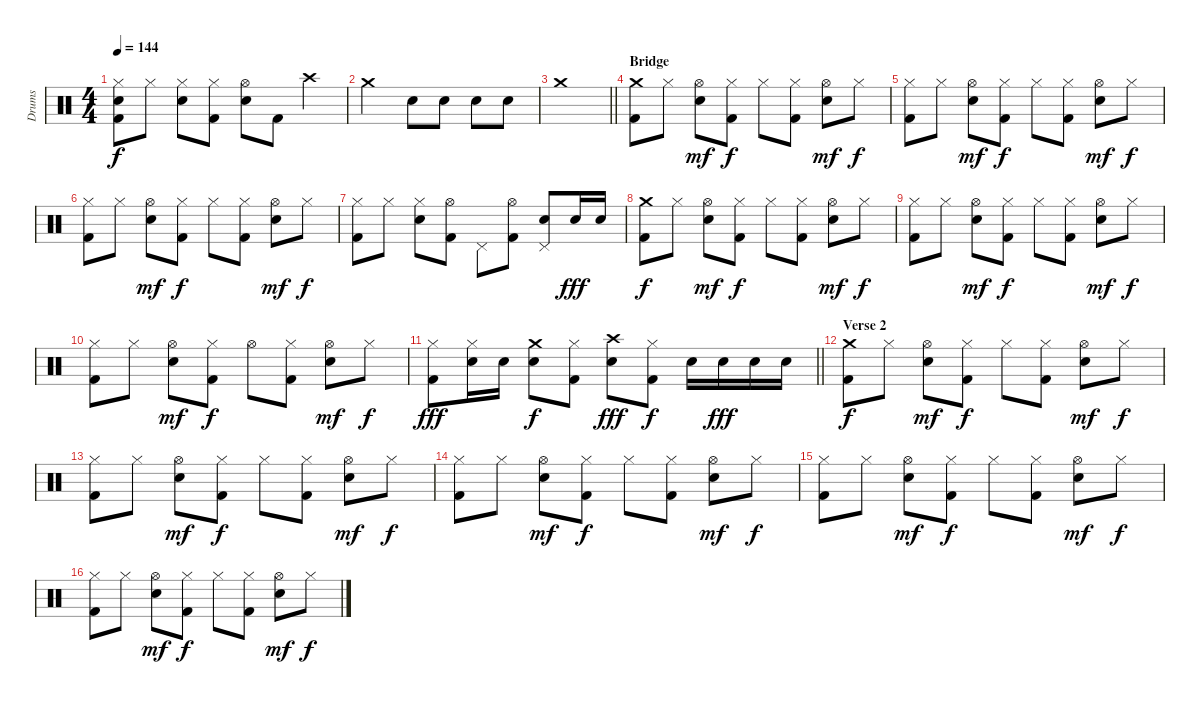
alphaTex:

\track ("Drums" "Drums") {instrument percussion}
\staff {score}
\articulation defaults
\ts (4 4)
\tempo 144
\clef neutral
\ks c
("Hi-Hat (closed)" "Electric Snare (hit)" "Kick (hit) 2").8{dy f} "Hi-Hat (closed)".8 ("Hi-Hat (closed)" "Electric Snare (hit)").8 ("Hi-Hat (closed)" "Kick (hit) 2").8 ("Hi-Hat (open)" "Electric Snare (hit)").8 "Kick (hit) 2".8 "Crash high (hit)".4 |
"Crash medium (hit)".2 "Electric Snare (hit)".8 "Electric Snare (hit)".8 "Electric Snare (hit)".8 "Electric Snare (hit)".8 |
\barLineRight lightlight "Crash medium (hit)".1
|
\section ("" "Bridge")
("Crash medium (hit)" "Kick (hit) 2").8 "Hi-Hat (closed)".8 ("Hi-Hat (open)" "Electric Snare (hit)").8{dy mf} ("Hi-Hat (closed)" "Kick (hit) 2").8{dy f} "Hi-Hat (closed)".8 ("Hi-Hat (closed)" "Kick (hit) 2").8 ("Hi-Hat (open)" "Electric Snare (hit)").8{dy mf} "Hi-Hat (closed)".8{dy f} |
("Hi-Hat (closed)" "Kick (hit) 2").8 "Hi-Hat (closed)".8 ("Hi-Hat (open)" "Electric Snare (hit)").8{dy mf} ("Hi-Hat (closed)" "Kick (hit) 2").8{dy f} "Hi-Hat (closed)".8 ("Hi-Hat (closed)" "Kick (hit) 2").8 ("Hi-Hat (open)" "Electric Snare (hit)").8{dy mf} "Hi-Hat (closed)".8{dy f} |
("Hi-Hat (closed)" "Kick (hit) 2").8 "Hi-Hat (closed)".8 ("Hi-Hat (open)" "Electric Snare (hit)").8{dy mf} ("Hi-Hat (closed)" "Kick (hit) 2").8{dy f} "Hi-Hat (closed)".8 ("Hi-Hat (closed)" "Kick (hit) 2").8 ("Hi-Hat (open)" "Electric Snare (hit)").8{dy mf} "Hi-Hat (closed)".8{dy f} |
("Hi-Hat (closed)" "Kick (hit) 2").8 "Hi-Hat (closed)".8 ("Hi-Hat (closed)" "Electric Snare (hit)").8 ("Hi-Hat (open)" "Kick (hit) 2").8 "Pedal Hi-Hat (hit)".8 ("Hi-Hat (open)" "Kick (hit) 2").8 ("Pedal Hi-Hat (hit)" "Electric Snare (hit)").8 "Electric Snare (hit)".16{dy fff} "Electric Snare (hit)".16 |
("Crash medium (hit)" "Kick (hit) 2").8{dy f} "Hi-Hat (closed)".8 ("Hi-Hat (open)" "Electric Snare (hit)").8{dy mf} ("Hi-Hat (closed)" "Kick (hit) 2").8{dy f} "Hi-Hat (closed)".8 ("Hi-Hat (closed)" "Kick (hit) 2").8 ("Hi-Hat (open)" "Electric Snare (hit)").8{dy mf} "Hi-Hat (closed)".8{dy f} |
("Hi-Hat (closed)" "Kick (hit) 2").8 "Hi-Hat (closed)".8 ("Hi-Hat (open)" "Electric Snare (hit)").8{dy mf} ("Hi-Hat (closed)" "Kick (hit) 2").8{dy f} "Hi-Hat (closed)".8 ("Hi-Hat (closed)" "Kick (hit) 2").8 ("Hi-Hat (open)" "Electric Snare (hit)").8{dy mf} "Hi-Hat (closed)".8{dy f} |
("Hi-Hat (closed)" "Kick (hit) 2").8 "Hi-Hat (closed)".8 ("Hi-Hat (open)" "Electric Snare (hit)").8{dy mf} ("Hi-Hat (closed)" "Kick (hit) 2").8{dy f} "Hi-Hat (open)".8 ("Hi-Hat (closed)" "Kick (hit) 2").8 ("Hi-Hat (open)" "Electric Snare (hit)").8{dy mf} "Hi-Hat (closed)".8{dy f} |
\barLineRight lightlight
("Hi-Hat (closed)" "Kick (hit) 2").8{dy fff} ("Hi-Hat (closed)" "Electric Snare (hit)").16 "Electric Snare (hit)".16 ("Crash medium (hit)" "Electric Snare (hit)").8{dy f} ("Hi-Hat (closed)" "Kick (hit) 2").8 ("Crash high (hit)" "Electric Snare (hit)").8{dy fff} ("Hi-Hat (closed)" "Kick (hit) 2").8{dy f} "Electric Snare (hit)".16 "Electric Snare (hit)".16{dy fff} "Electric Snare (hit)".16 "Electric Snare (hit)".16 |
\section ("" "Verse 2")
("Crash medium (hit)" "Kick (hit) 2").8{dy f} "Hi-Hat (closed)".8 ("Hi-Hat (open)" "Electric Snare (hit)").8{dy mf} ("Hi-Hat (closed)" "Kick (hit) 2").8{dy f} "Hi-Hat (closed)".8 ("Hi-Hat (closed)" "Kick (hit) 2").8 ("Hi-Hat (open)" "Electric Snare (hit)").8{dy mf} "Hi-Hat (closed)".8{dy f} |
("Hi-Hat (closed)" "Kick (hit) 2").8 "Hi-Hat (closed)".8 ("Hi-Hat (open)" "Electric Snare (hit)").8{dy mf} ("Hi-Hat (closed)" "Kick (hit) 2").8{dy f} "Hi-Hat (closed)".8 ("Hi-Hat (closed)" "Kick (hit) 2").8 ("Hi-Hat (open)" "Electric Snare (hit)").8{dy mf} "Hi-Hat (closed)".8{dy f} |
("Hi-Hat (closed)" "Kick (hit) 2").8 "Hi-Hat (closed)".8 ("Hi-Hat (open)" "Electric Snare (hit)").8{dy mf} ("Hi-Hat (closed)" "Kick (hit) 2").8{dy f} "Hi-Hat (closed)".8 ("Hi-Hat (closed)" "Kick (hit) 2").8 ("Hi-Hat (open)" "Electric Snare (hit)").8{dy mf} "Hi-Hat (closed)".8{dy f} |
("Hi-Hat (closed)" "Kick (hit) 2").8 "Hi-Hat (closed)".8 ("Hi-Hat (open)" "Electric Snare (hit)").8{dy mf} ("Hi-Hat (closed)" "Kick (hit) 2").8{dy f} "Hi-Hat (closed)".8 ("Hi-Hat (closed)" "Kick (hit) 2").8 ("Hi-Hat (open)" "Electric Snare (hit)").8{dy mf} "Hi-Hat (closed)".8{dy f} |
("Hi-Hat (closed)" "Kick (hit) 2").8 "Hi-Hat (closed)".8 ("Hi-Hat (open)" "Electric Snare (hit)").8{dy mf} ("Hi-Hat (closed)" "Kick (hit) 2").8{dy f} "Hi-Hat (closed)".8 ("Hi-Hat (closed)" "Kick (hit) 2").8 ("Hi-Hat (open)" "Electric Snare (hit)").8{dy mf} "Hi-Hat (closed)".8{dy f}
